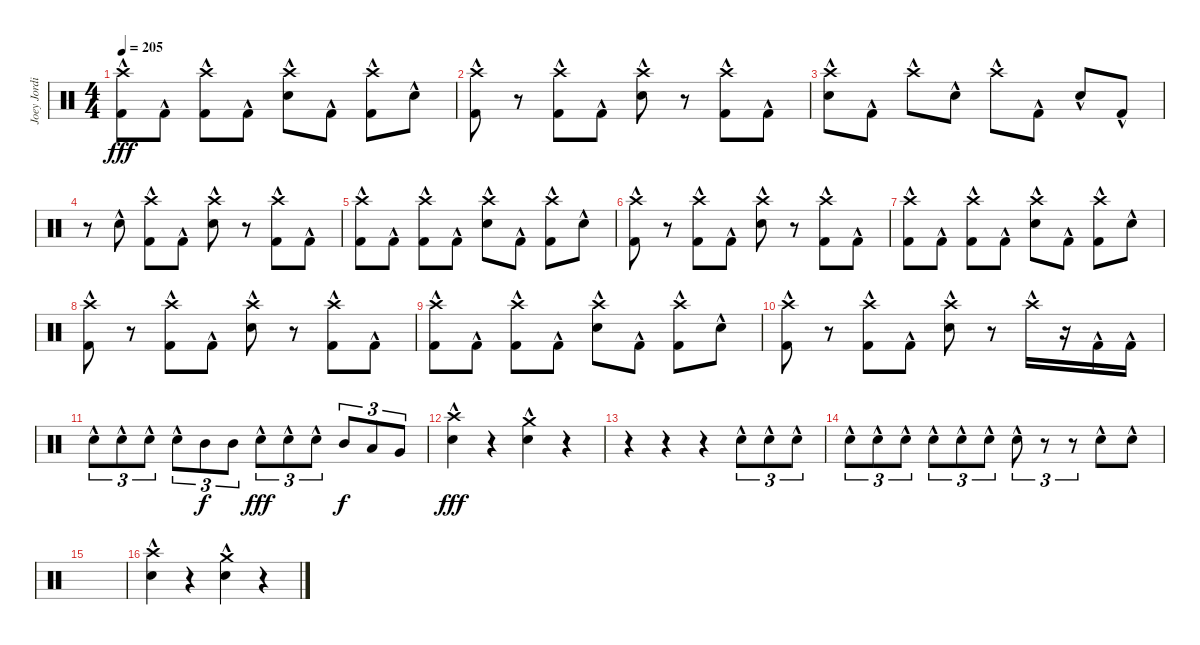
\track ("Joey Jordison" "Joey Jordi") {instrument percussion}
\staff {score}
\articulation defaults
\ts (4 4)
\tempo 205
\clef neutral
\ks c
("Crash high (hit)"{hac} "Kick (hit) 2"{hac}).8{dy fff} "Kick (hit) 2"{hac}.8 ("Crash high (hit)"{hac} "Kick (hit) 2"{hac}).8 "Kick (hit) 2"{hac}.8 ("Crash high (hit)"{hac} "Electric Snare (hit)"{hac}).8 "Kick (hit) 2"{hac}.8 ("Crash high (hit)"{hac} "Kick (hit) 2"{hac}).8 "Electric Snare (hit)"{hac}.8 |
("Crash high (hit)"{hac} "Kick (hit) 2"{hac}).8 r.8 ("Crash high (hit)"{hac} "Kick (hit) 2"{hac}).8 "Kick (hit) 2"{hac}.8 ("Crash high (hit)"{hac} "Electric Snare (hit)"{hac}).8 r.8 ("Crash high (hit)"{hac} "Kick (hit) 2"{hac}).8 "Kick (hit) 2"{hac}.8 |
("Crash high (hit)"{hac} "Electric Snare (hit)"{hac}).8 "Kick (hit) 2"{hac}.8 "Crash high (hit)"{hac}.8 "Electric Snare (hit)"{hac}.8 "Crash high (hit)"{hac}.8 "Kick (hit) 2"{hac}.8 "Electric Snare (hit)"{hac}.8 "Kick (hit) 2"{hac}.8 |
r.8 "Electric Snare (hit)"{hac}.8 ("Crash high (hit)"{hac} "Kick (hit) 2"{hac}).8 "Kick (hit) 2"{hac}.8 ("Crash high (hit)"{hac} "Electric Snare (hit)"{hac}).8 r.8 ("Crash high (hit)"{hac} "Kick (hit) 2"{hac}).8 "Kick (hit) 2"{hac}.8 |
("Crash high (hit)"{hac} "Kick (hit) 2"{hac}).8 "Kick (hit) 2"{hac}.8 ("Crash high (hit)"{hac} "Kick (hit) 2"{hac}).8 "Kick (hit) 2"{hac}.8 ("Crash high (hit)"{hac} "Electric Snare (hit)"{hac}).8 "Kick (hit) 2"{hac}.8 ("Crash high (hit)"{hac} "Kick (hit) 2"{hac}).8 "Electric Snare (hit)"{hac}.8 |
("Crash high (hit)"{hac} "Kick (hit) 2"{hac}).8 r.8 ("Crash high (hit)"{hac} "Kick (hit) 2"{hac}).8 "Kick (hit) 2"{hac}.8 ("Crash high (hit)"{hac} "Electric Snare (hit)"{hac}).8 r.8 ("Crash high (hit)"{hac} "Kick (hit) 2"{hac}).8 "Kick (hit) 2"{hac}.8 |
("Crash high (hit)"{hac} "Kick (hit) 2"{hac}).8 "Kick (hit) 2"{hac}.8 ("Crash high (hit)"{hac} "Kick (hit) 2"{hac}).8 "Kick (hit) 2"{hac}.8 ("Crash high (hit)"{hac} "Electric Snare (hit)"{hac}).8 "Kick (hit) 2"{hac}.8 ("Crash high (hit)"{hac} "Kick (hit) 2"{hac}).8 "Electric Snare (hit)"{hac}.8 |
("Crash high (hit)"{hac} "Kick (hit) 2"{hac}).8 r.8 ("Crash high (hit)"{hac} "Kick (hit) 2"{hac}).8 "Kick (hit) 2"{hac}.8 ("Crash high (hit)"{hac} "Electric Snare (hit)"{hac}).8 r.8 ("Crash high (hit)"{hac} "Kick (hit) 2"{hac}).8 "Kick (hit) 2"{hac}.8 |
("Crash high (hit)"{hac} "Kick (hit) 2"{hac}).8 "Kick (hit) 2"{hac}.8 ("Crash high (hit)"{hac} "Kick (hit) 2"{hac}).8 "Kick (hit) 2"{hac}.8 ("Crash high (hit)"{hac} "Electric Snare (hit)"{hac}).8 "Kick (hit) 2"{hac}.8 ("Crash high (hit)"{hac} "Kick (hit) 2"{hac}).8 "Electric Snare (hit)"{hac}.8 |
("Crash high (hit)"{hac} "Kick (hit) 2"{hac}).8 r.8 ("Crash high (hit)"{hac} "Kick (hit) 2"{hac}).8 "Kick (hit) 2"{hac}.8 ("Crash high (hit)"{hac} "Electric Snare (hit)"{hac}).8 r.8 "Crash high (hit)"{hac}.16 r.16 "Kick (hit) 2"{hac}.16 "Kick (hit) 2"{hac}.16 |
"Electric Snare (hit)"{hac}.8{tu (3 2)} "Electric Snare (hit)"{hac}.8{tu (3 2)} "Electric Snare (hit)"{hac}.8{tu (3 2)} "Electric Snare (hit)"{hac}.8{tu (3 2)} "Mid Tom (hit)".8{tu (3 2) dy f} "Mid Tom (hit)".8{tu (3 2)} "Electric Snare (hit)"{hac}.8{tu (3 2) dy fff} "Electric Snare (hit)"{hac}.8{tu (3 2)} "Electric Snare (hit)"{hac}.8{tu (3 2)} "Mid Tom (hit)".8{tu (3 2) dy f} "Low Tom (hit)".8{tu (3 2)} "Very Low Tom (hit)".8{tu (3 2)} |
("Crash high (hit)"{hac} "Electric Snare (hit)"{hac}).4{dy fff} r.4 ("Crash medium (hit)"{hac} "Electric Snare (hit)"{hac}).4 r.4 |
r.4 r.4 r.4 "Electric Snare (hit)"{hac}.8{tu (3 2)} "Electric Snare (hit)"{hac}.8{tu (3 2)} "Electric Snare (hit)"{hac}.8{tu (3 2)} |
"Electric Snare (hit)"{hac}.8{tu (3 2)} "Electric Snare (hit)"{hac}.8{tu (3 2)} "Electric Snare (hit)"{hac}.8{tu (3 2)} "Electric Snare (hit)"{hac}.8{tu (3 2)} "Electric Snare (hit)"{hac}.8{tu (3 2)} "Electric Snare (hit)"{hac}.8{tu (3 2)} "Electric Snare (hit)"{hac}.8{tu (3 2)} r.8{tu (3 2)} r.8{tu (3 2)} "Electric Snare (hit)"{hac}.8 "Electric Snare (hit)"{hac}.8 |
|
("Crash high (hit)"{hac} "Electric Snare (hit)"{hac}).4 r.4 ("Crash medium (hit)"{hac} "Electric Snare (hit)"{hac}).4 r.4
